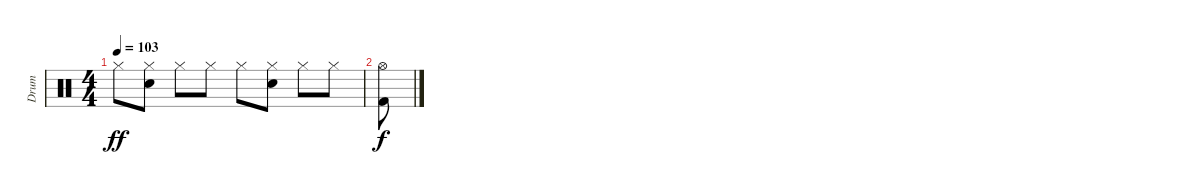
\track ("Drum" "Drum") {instrument percussion}
\staff {score}
\articulation defaults
\ts (4 4)
\tempo 103
\clef neutral
\ks c "Hi-Hat (closed)".8{dy ff}
("Hi-Hat (closed)" "Electric Snare (hit)").8 "Hi-Hat (closed)".8 "Hi-Hat (closed)".8 "Hi-Hat (closed)".8 ("Hi-Hat (closed)" "Electric Snare (hit)").8 "Hi-Hat (closed)".8 "Hi-Hat (closed)".8 |
("Hi-Hat (open)" "Kick (hit) 2").8{dy f}
